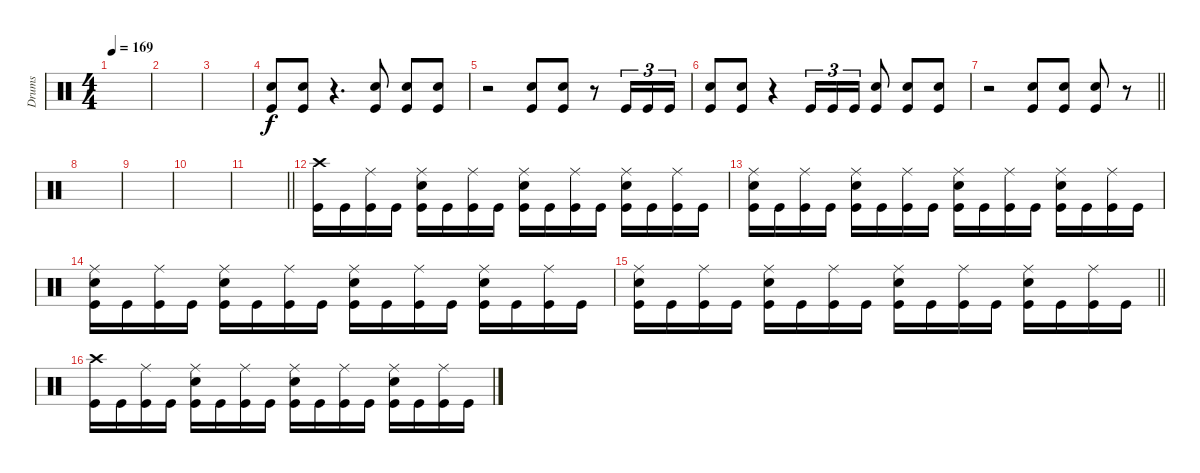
\track ("Drums" "Drums") {instrument percussion}
\staff
\articulation defaults
\ts (4 4)
\tempo 169
\clef neutral
\ks c
|
|
|
("Electric Snare (hit)" "Kick (hit)").8 ("Electric Snare (hit)" "Kick (hit)").8 r.4{d} ("Electric Snare (hit)" "Kick (hit)").8 ("Electric Snare (hit)" "Kick (hit)").8 ("Electric Snare (hit)" "Kick (hit)").8 |
r.2 ("Electric Snare (hit)" "Kick (hit)").8 ("Electric Snare (hit)" "Kick (hit)").8 r.8 "Kick (hit)".16{tu (3 2)} "Kick (hit)".16{tu (3 2)} "Kick (hit)".16{tu (3 2)} |
("Electric Snare (hit)" "Kick (hit)").8 ("Electric Snare (hit)" "Kick (hit)").8 r.4 "Kick (hit)".16{tu (3 2)} "Kick (hit)".16{tu (3 2)} "Kick (hit)".16{tu (3 2)} ("Electric Snare (hit)" "Kick (hit)").8 ("Electric Snare (hit)" "Kick (hit)").8 ("Electric Snare (hit)" "Kick (hit)").8 |
\barLineRight lightlight
r.2 ("Electric Snare (hit)" "Kick (hit)").8 ("Electric Snare (hit)" "Kick (hit)").8 ("Electric Snare (hit)" "Kick (hit)").8 r.8 |
|
|
|
\barLineRight lightlight
|
("Crash high (hit)" "Kick (hit)").16 "Kick (hit)".16 ("Ride (middle)" "Kick (hit)").16 "Kick (hit)".16 ("Ride (middle)" "Electric Snare (hit)" "Kick (hit)").16 "Kick (hit)".16 ("Ride (middle)" "Kick (hit)").16 "Kick (hit)".16 ("Ride (middle)" "Electric Snare (hit)" "Kick (hit)").16 "Kick (hit)".16 ("Ride (middle)" "Kick (hit)").16 "Kick (hit)".16 ("Ride (middle)" "Electric Snare (hit)" "Kick (hit)").16 "Kick (hit)".16 ("Ride (middle)" "Kick (hit)").16 "Kick (hit)".16 |
("Ride (middle)" "Electric Snare (hit)" "Kick (hit)").16 "Kick (hit)".16 ("Ride (middle)" "Kick (hit)").16 "Kick (hit)".16 ("Ride (middle)" "Electric Snare (hit)" "Kick (hit)").16 "Kick (hit)".16 ("Ride (middle)" "Kick (hit)").16 "Kick (hit)".16 ("Ride (middle)" "Electric Snare (hit)" "Kick (hit)").16 "Kick (hit)".16 ("Ride (middle)" "Kick (hit)").16 "Kick (hit)".16 ("Ride (middle)" "Electric Snare (hit)" "Kick (hit)").16 "Kick (hit)".16 ("Ride (middle)" "Kick (hit)").16 "Kick (hit)".16 |
("Ride (middle)" "Electric Snare (hit)" "Kick (hit)").16 "Kick (hit)".16 ("Ride (middle)" "Kick (hit)").16 "Kick (hit)".16 ("Ride (middle)" "Electric Snare (hit)" "Kick (hit)").16 "Kick (hit)".16 ("Ride (middle)" "Kick (hit)").16 "Kick (hit)".16 ("Ride (middle)" "Electric Snare (hit)" "Kick (hit)").16 "Kick (hit)".16 ("Ride (middle)" "Kick (hit)").16 "Kick (hit)".16 ("Ride (middle)" "Electric Snare (hit)" "Kick (hit)").16 "Kick (hit)".16 ("Ride (middle)" "Kick (hit)").16 "Kick (hit)".16 |
\barLineRight lightlight
("Ride (middle)" "Electric Snare (hit)" "Kick (hit)").16 "Kick (hit)".16 ("Ride (middle)" "Kick (hit)").16 "Kick (hit)".16 ("Ride (middle)" "Electric Snare (hit)" "Kick (hit)").16 "Kick (hit)".16 ("Ride (middle)" "Kick (hit)").16 "Kick (hit)".16 ("Ride (middle)" "Electric Snare (hit)" "Kick (hit)").16 "Kick (hit)".16 ("Ride (middle)" "Kick (hit)").16 "Kick (hit)".16 ("Ride (middle)" "Electric Snare (hit)" "Kick (hit)").16 "Kick (hit)".16 ("Ride (middle)" "Kick (hit)").16 "Kick (hit)".16 |
("Crash high (hit)" "Kick (hit)").16 "Kick (hit)".16 ("Ride (middle)" "Kick (hit)").16 "Kick (hit)".16 ("Ride (middle)" "Electric Snare (hit)" "Kick (hit)").16 "Kick (hit)".16 ("Ride (middle)" "Kick (hit)").16 "Kick (hit)".16 ("Ride (middle)" "Electric Snare (hit)" "Kick (hit)").16 "Kick (hit)".16 ("Ride (middle)" "Kick (hit)").16 "Kick (hit)".16 ("Ride (middle)" "Electric Snare (hit)" "Kick (hit)").16 "Kick (hit)".16 ("Ride (middle)" "Kick (hit)").16 "Kick (hit)".16
